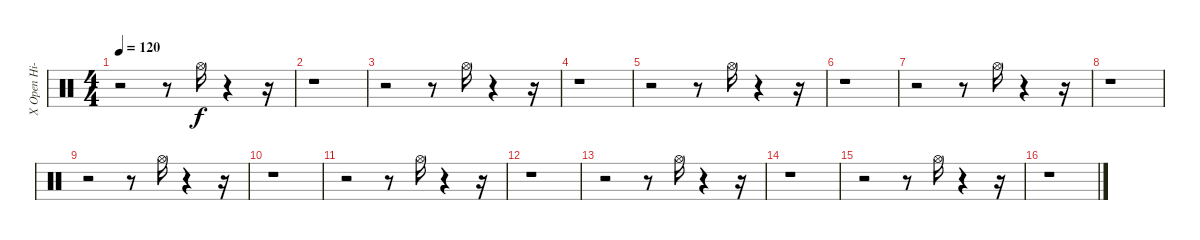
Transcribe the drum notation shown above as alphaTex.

\track ("X Open Hi-Hat       " "X Open Hi-") {instrument percussion}
\staff {score}
\articulation defaults
\ts (4 4)
\tempo 120
\clef neutral
\ks c
r.2{dy f} r.8 "Hi-Hat (open)".16 r.4 r.16 |
r.1 |
r.2 r.8 "Hi-Hat (open)".16 r.4 r.16 |
r.1 |
r.2 r.8 "Hi-Hat (open)".16 r.4 r.16 |
r.1 |
r.2 r.8 "Hi-Hat (open)".16 r.4 r.16 |
r.1 |
r.2 r.8 "Hi-Hat (open)".16 r.4 r.16 |
r.1 |
r.2 r.8 "Hi-Hat (open)".16 r.4 r.16 |
r.1 |
r.2 r.8 "Hi-Hat (open)".16 r.4 r.16 |
r.1 |
r.2 r.8 "Hi-Hat (open)".16 r.4 r.16 |
r.1
